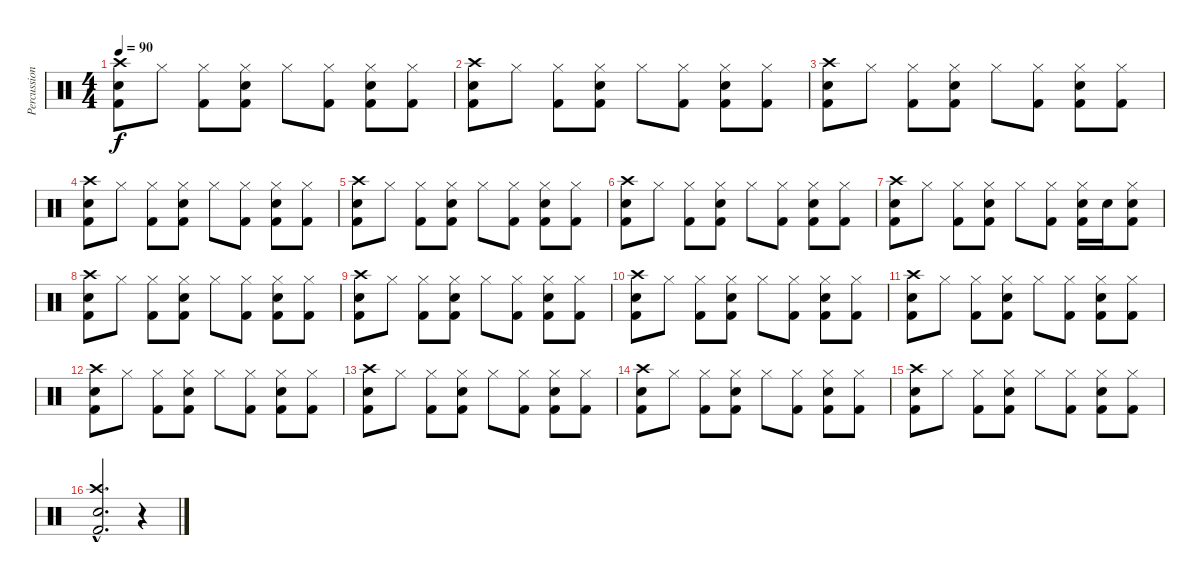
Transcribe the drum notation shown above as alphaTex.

\track ("Percussion" "Percussion") {instrument percussion}
\staff {score}
\articulation defaults
\ts (4 4)
\tempo 90
\clef neutral
\ks c
("Snare (hit) 2" "Crash high (hit)" "Kick (hit) 2").8{dy f} "Hi-Hat (closed)".8 ("Hi-Hat (closed)" "Kick (hit) 2").8 ("Hi-Hat (closed)" "Snare (hit) 2" "Kick (hit) 2").8 "Hi-Hat (closed)".8 ("Hi-Hat (closed)" "Kick (hit) 2").8 ("Hi-Hat (closed)" "Snare (hit) 2" "Kick (hit) 2").8 ("Hi-Hat (closed)" "Kick (hit) 2").8 |
("Snare (hit) 2" "Crash high (hit)" "Kick (hit) 2").8 "Hi-Hat (closed)".8 ("Hi-Hat (closed)" "Kick (hit) 2").8 ("Hi-Hat (closed)" "Snare (hit) 2" "Kick (hit) 2").8 "Hi-Hat (closed)".8 ("Hi-Hat (closed)" "Kick (hit) 2").8 ("Hi-Hat (closed)" "Snare (hit) 2" "Kick (hit) 2").8 ("Hi-Hat (closed)" "Kick (hit) 2").8 |
("Snare (hit) 2" "Crash high (hit)" "Kick (hit) 2").8 "Hi-Hat (closed)".8 ("Hi-Hat (closed)" "Kick (hit) 2").8 ("Hi-Hat (closed)" "Snare (hit) 2" "Kick (hit) 2").8 "Hi-Hat (closed)".8 ("Hi-Hat (closed)" "Kick (hit) 2").8 ("Hi-Hat (closed)" "Snare (hit) 2" "Kick (hit) 2").8 ("Hi-Hat (closed)" "Kick (hit) 2").8 |
("Snare (hit) 2" "Crash high (hit)" "Kick (hit) 2").8 "Hi-Hat (closed)".8 ("Hi-Hat (closed)" "Kick (hit) 2").8 ("Hi-Hat (closed)" "Snare (hit) 2" "Kick (hit) 2").8 "Hi-Hat (closed)".8 ("Hi-Hat (closed)" "Kick (hit) 2").8 ("Hi-Hat (closed)" "Snare (hit) 2" "Kick (hit) 2").8 ("Hi-Hat (closed)" "Kick (hit) 2").8 |
("Snare (hit) 2" "Crash high (hit)" "Kick (hit) 2").8 "Hi-Hat (closed)".8 ("Hi-Hat (closed)" "Kick (hit) 2").8 ("Hi-Hat (closed)" "Snare (hit) 2" "Kick (hit) 2").8 "Hi-Hat (closed)".8 ("Hi-Hat (closed)" "Kick (hit) 2").8 ("Hi-Hat (closed)" "Snare (hit) 2" "Kick (hit) 2").8 ("Hi-Hat (closed)" "Kick (hit) 2").8 |
("Snare (hit) 2" "Crash high (hit)" "Kick (hit) 2").8 "Hi-Hat (closed)".8 ("Hi-Hat (closed)" "Kick (hit) 2").8 ("Hi-Hat (closed)" "Snare (hit) 2" "Kick (hit) 2").8 "Hi-Hat (closed)".8 ("Hi-Hat (closed)" "Kick (hit) 2").8 ("Hi-Hat (closed)" "Snare (hit) 2" "Kick (hit) 2").8 ("Hi-Hat (closed)" "Kick (hit) 2").8 |
("Snare (hit) 2" "Crash high (hit)" "Kick (hit) 2").8 "Hi-Hat (closed)".8 ("Hi-Hat (closed)" "Kick (hit) 2").8 ("Hi-Hat (closed)" "Snare (hit) 2" "Kick (hit) 2").8 "Hi-Hat (closed)".8 ("Hi-Hat (closed)" "Kick (hit) 2").8 ("Hi-Hat (closed)" "Snare (hit) 2" "Kick (hit) 2").16 "Snare (hit) 2".16 ("Hi-Hat (closed)" "Snare (hit) 2" "Kick (hit) 2").8 |
("Snare (hit) 2" "Crash high (hit)" "Kick (hit) 2").8 "Hi-Hat (closed)".8 ("Hi-Hat (closed)" "Kick (hit) 2").8 ("Hi-Hat (closed)" "Snare (hit) 2" "Kick (hit) 2").8 "Hi-Hat (closed)".8 ("Hi-Hat (closed)" "Kick (hit) 2").8 ("Hi-Hat (closed)" "Snare (hit) 2" "Kick (hit) 2").8 ("Hi-Hat (closed)" "Kick (hit) 2").8 |
("Snare (hit) 2" "Crash high (hit)" "Kick (hit) 2").8 "Hi-Hat (closed)".8 ("Hi-Hat (closed)" "Kick (hit) 2").8 ("Hi-Hat (closed)" "Snare (hit) 2" "Kick (hit) 2").8 "Hi-Hat (closed)".8 ("Hi-Hat (closed)" "Kick (hit) 2").8 ("Hi-Hat (closed)" "Snare (hit) 2" "Kick (hit) 2").8 ("Hi-Hat (closed)" "Kick (hit) 2").8 |
("Snare (hit) 2" "Crash high (hit)" "Kick (hit) 2").8 "Hi-Hat (closed)".8 ("Hi-Hat (closed)" "Kick (hit) 2").8 ("Hi-Hat (closed)" "Snare (hit) 2" "Kick (hit) 2").8 "Hi-Hat (closed)".8 ("Hi-Hat (closed)" "Kick (hit) 2").8 ("Hi-Hat (closed)" "Snare (hit) 2" "Kick (hit) 2").8 ("Hi-Hat (closed)" "Kick (hit) 2").8 |
("Snare (hit) 2" "Crash high (hit)" "Kick (hit) 2").8 "Hi-Hat (closed)".8 ("Hi-Hat (closed)" "Kick (hit) 2").8 ("Hi-Hat (closed)" "Snare (hit) 2" "Kick (hit) 2").8 "Hi-Hat (closed)".8 ("Hi-Hat (closed)" "Kick (hit) 2").8 ("Hi-Hat (closed)" "Snare (hit) 2" "Kick (hit) 2").8 ("Hi-Hat (closed)" "Kick (hit) 2").8 |
("Snare (hit) 2" "Crash high (hit)" "Kick (hit) 2").8 "Hi-Hat (closed)".8 ("Hi-Hat (closed)" "Kick (hit) 2").8 ("Hi-Hat (closed)" "Snare (hit) 2" "Kick (hit) 2").8 "Hi-Hat (closed)".8 ("Hi-Hat (closed)" "Kick (hit) 2").8 ("Hi-Hat (closed)" "Snare (hit) 2" "Kick (hit) 2").8 ("Hi-Hat (closed)" "Kick (hit) 2").8 |
("Snare (hit) 2" "Crash high (hit)" "Kick (hit) 2").8 "Hi-Hat (closed)".8 ("Hi-Hat (closed)" "Kick (hit) 2").8 ("Hi-Hat (closed)" "Snare (hit) 2" "Kick (hit) 2").8 "Hi-Hat (closed)".8 ("Hi-Hat (closed)" "Kick (hit) 2").8 ("Hi-Hat (closed)" "Snare (hit) 2" "Kick (hit) 2").8 ("Hi-Hat (closed)" "Kick (hit) 2").8 |
("Snare (hit) 2" "Crash high (hit)" "Kick (hit) 2").8 "Hi-Hat (closed)".8 ("Hi-Hat (closed)" "Kick (hit) 2").8 ("Hi-Hat (closed)" "Snare (hit) 2" "Kick (hit) 2").8 "Hi-Hat (closed)".8 ("Hi-Hat (closed)" "Kick (hit) 2").8 ("Hi-Hat (closed)" "Snare (hit) 2" "Kick (hit) 2").8 ("Hi-Hat (closed)" "Kick (hit) 2").8 |
("Snare (hit) 2" "Crash high (hit)" "Kick (hit) 2").8 "Hi-Hat (closed)".8 ("Hi-Hat (closed)" "Kick (hit) 2").8 ("Hi-Hat (closed)" "Snare (hit) 2" "Kick (hit) 2").8 "Hi-Hat (closed)".8 ("Hi-Hat (closed)" "Kick (hit) 2").8 ("Hi-Hat (closed)" "Snare (hit) 2" "Kick (hit) 2").8 ("Hi-Hat (closed)" "Kick (hit) 2").8 |
("Kick (hit) 2"{hac} "Snare (hit) 2"{hac} "Crash high (hit)"{hac}).2{d} r.4{volume 0}
